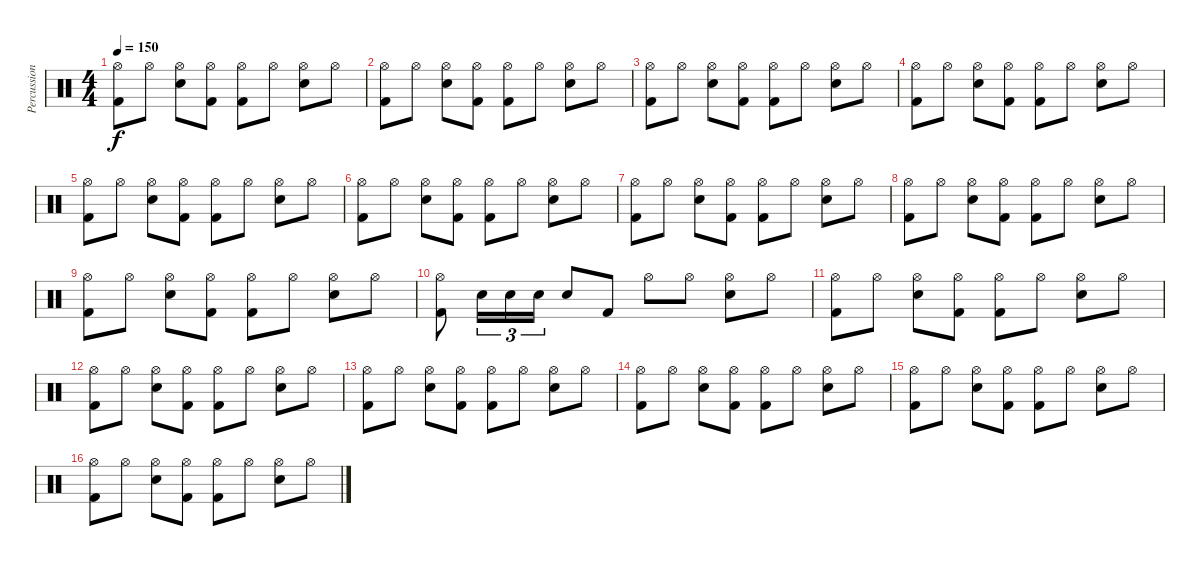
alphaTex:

\track ("Percussion" "Percussion") {instrument percussion}
\staff {score}
\articulation defaults
\ts (4 4)
\tempo 150
\clef neutral
\ks c
("Hi-Hat (open)" "Kick (hit) 2").8{dy f} "Hi-Hat (open)".8 ("Hi-Hat (open)" "Snare (hit) 2").8 ("Hi-Hat (open)" "Kick (hit) 2").8 ("Hi-Hat (open)" "Kick (hit) 2").8 "Hi-Hat (open)".8 ("Hi-Hat (open)" "Snare (hit) 2").8 "Hi-Hat (open)".8 |
("Hi-Hat (open)" "Kick (hit) 2").8 "Hi-Hat (open)".8 ("Hi-Hat (open)" "Snare (hit) 2").8 ("Hi-Hat (open)" "Kick (hit) 2").8 ("Hi-Hat (open)" "Kick (hit) 2").8 "Hi-Hat (open)".8 ("Hi-Hat (open)" "Snare (hit) 2").8 "Hi-Hat (open)".8 |
("Hi-Hat (open)" "Kick (hit) 2").8 "Hi-Hat (open)".8 ("Hi-Hat (open)" "Snare (hit) 2").8 ("Hi-Hat (open)" "Kick (hit) 2").8 ("Hi-Hat (open)" "Kick (hit) 2").8 "Hi-Hat (open)".8 ("Hi-Hat (open)" "Snare (hit) 2").8 "Hi-Hat (open)".8 |
("Hi-Hat (open)" "Kick (hit) 2").8 "Hi-Hat (open)".8 ("Hi-Hat (open)" "Snare (hit) 2").8 ("Hi-Hat (open)" "Kick (hit) 2").8 ("Hi-Hat (open)" "Kick (hit) 2").8 "Hi-Hat (open)".8 ("Hi-Hat (open)" "Snare (hit) 2").8 "Hi-Hat (open)".8 |
("Hi-Hat (open)" "Kick (hit) 2").8 "Hi-Hat (open)".8 ("Hi-Hat (open)" "Snare (hit) 2").8 ("Hi-Hat (open)" "Kick (hit) 2").8 ("Hi-Hat (open)" "Kick (hit) 2").8 "Hi-Hat (open)".8 ("Hi-Hat (open)" "Snare (hit) 2").8 "Hi-Hat (open)".8 |
("Hi-Hat (open)" "Kick (hit) 2").8 "Hi-Hat (open)".8 ("Hi-Hat (open)" "Snare (hit) 2").8 ("Hi-Hat (open)" "Kick (hit) 2").8 ("Hi-Hat (open)" "Kick (hit) 2").8 "Hi-Hat (open)".8 ("Hi-Hat (open)" "Snare (hit) 2").8 "Hi-Hat (open)".8 |
("Hi-Hat (open)" "Kick (hit) 2").8 "Hi-Hat (open)".8 ("Hi-Hat (open)" "Snare (hit) 2").8 ("Hi-Hat (open)" "Kick (hit) 2").8 ("Hi-Hat (open)" "Kick (hit) 2").8 "Hi-Hat (open)".8 ("Hi-Hat (open)" "Snare (hit) 2").8 "Hi-Hat (open)".8 |
("Hi-Hat (open)" "Kick (hit) 2").8 "Hi-Hat (open)".8 ("Hi-Hat (open)" "Snare (hit) 2").8 ("Hi-Hat (open)" "Kick (hit) 2").8 ("Hi-Hat (open)" "Kick (hit) 2").8 "Hi-Hat (open)".8 ("Hi-Hat (open)" "Snare (hit) 2").8 "Hi-Hat (open)".8 |
("Hi-Hat (open)" "Kick (hit) 2").8 "Hi-Hat (open)".8 ("Hi-Hat (open)" "Snare (hit) 2").8 ("Hi-Hat (open)" "Kick (hit) 2").8 ("Hi-Hat (open)" "Kick (hit) 2").8 "Hi-Hat (open)".8 ("Hi-Hat (open)" "Snare (hit) 2").8 "Hi-Hat (open)".8 |
("Hi-Hat (open)" "Kick (hit) 2").8 "Snare (hit) 2".16{tu (3 2)} "Snare (hit) 2".16{tu (3 2)} "Snare (hit) 2".16{tu (3 2)} "Snare (hit) 2".8 "Kick (hit) 2".8 "Hi-Hat (open)".8 "Hi-Hat (open)".8 ("Hi-Hat (open)" "Snare (hit) 2").8 "Hi-Hat (open)".8 |
("Hi-Hat (open)" "Kick (hit) 2").8 "Hi-Hat (open)".8 ("Hi-Hat (open)" "Snare (hit) 2").8 ("Hi-Hat (open)" "Kick (hit) 2").8 ("Hi-Hat (open)" "Kick (hit) 2").8 "Hi-Hat (open)".8 ("Hi-Hat (open)" "Snare (hit) 2").8 "Hi-Hat (open)".8 |
("Hi-Hat (open)" "Kick (hit) 2").8 "Hi-Hat (open)".8 ("Hi-Hat (open)" "Snare (hit) 2").8 ("Hi-Hat (open)" "Kick (hit) 2").8 ("Hi-Hat (open)" "Kick (hit) 2").8 "Hi-Hat (open)".8 ("Hi-Hat (open)" "Snare (hit) 2").8 "Hi-Hat (open)".8 |
("Hi-Hat (open)" "Kick (hit) 2").8 "Hi-Hat (open)".8 ("Hi-Hat (open)" "Snare (hit) 2").8 ("Hi-Hat (open)" "Kick (hit) 2").8 ("Hi-Hat (open)" "Kick (hit) 2").8 "Hi-Hat (open)".8 ("Hi-Hat (open)" "Snare (hit) 2").8 "Hi-Hat (open)".8 |
("Hi-Hat (open)" "Kick (hit) 2").8 "Hi-Hat (open)".8 ("Hi-Hat (open)" "Snare (hit) 2").8 ("Hi-Hat (open)" "Kick (hit) 2").8 ("Hi-Hat (open)" "Kick (hit) 2").8 "Hi-Hat (open)".8 ("Hi-Hat (open)" "Snare (hit) 2").8 "Hi-Hat (open)".8 |
("Hi-Hat (open)" "Kick (hit) 2").8 "Hi-Hat (open)".8 ("Hi-Hat (open)" "Snare (hit) 2").8 ("Hi-Hat (open)" "Kick (hit) 2").8 ("Hi-Hat (open)" "Kick (hit) 2").8 "Hi-Hat (open)".8 ("Hi-Hat (open)" "Snare (hit) 2").8 "Hi-Hat (open)".8 |
("Hi-Hat (open)" "Kick (hit) 2").8 "Hi-Hat (open)".8 ("Hi-Hat (open)" "Snare (hit) 2").8 ("Hi-Hat (open)" "Kick (hit) 2").8 ("Hi-Hat (open)" "Kick (hit) 2").8 "Hi-Hat (open)".8 ("Hi-Hat (open)" "Snare (hit) 2").8 "Hi-Hat (open)".8
